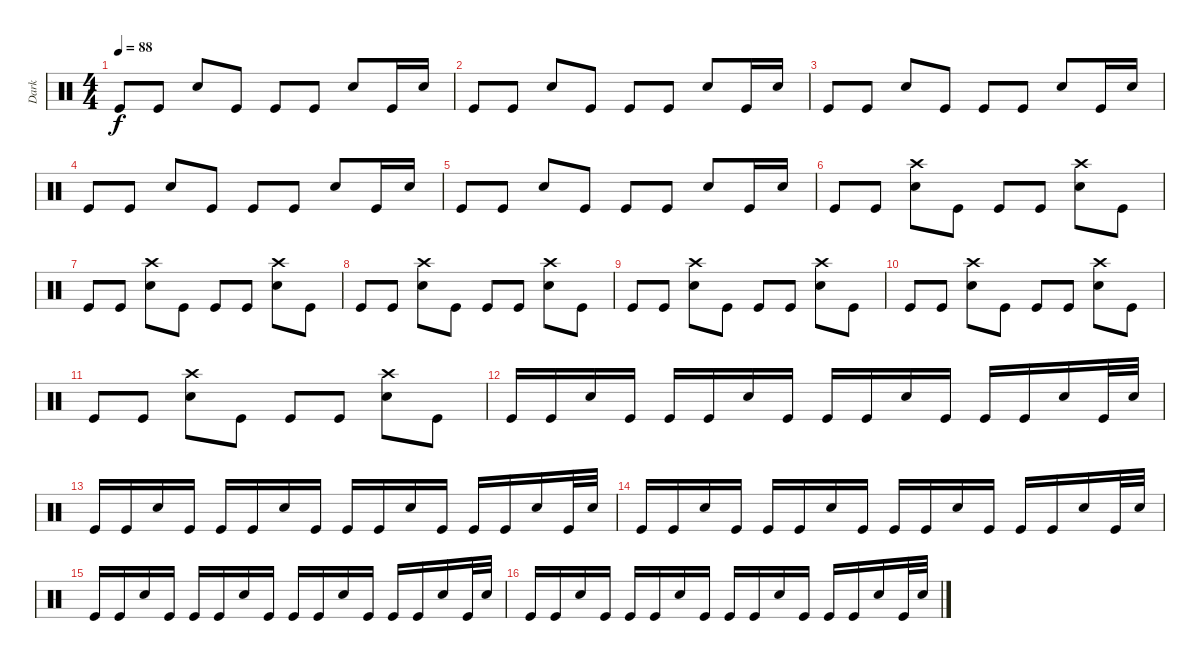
\track ("Dark " "Dark ") {instrument percussion}
\staff {score}
\articulation defaults
\ts (4 4)
\tempo 88
\clef neutral
\ks c "Kick (hit)".8{dy f} "Kick (hit)".8 "Snare (hit) 2".8 "Kick (hit)".8 "Kick (hit)".8 "Kick (hit)".8 "Snare (hit) 2".8 "Kick (hit)".16 "Snare (hit) 2".16
|
"Kick (hit)".8 "Kick (hit)".8 "Snare (hit) 2".8 "Kick (hit)".8 "Kick (hit)".8 "Kick (hit)".8 "Snare (hit) 2".8 "Kick (hit)".16 "Snare (hit) 2".16 |
"Kick (hit)".8 "Kick (hit)".8 "Snare (hit) 2".8 "Kick (hit)".8 "Kick (hit)".8 "Kick (hit)".8 "Snare (hit) 2".8 "Kick (hit)".16 "Snare (hit) 2".16 |
"Kick (hit)".8 "Kick (hit)".8 "Snare (hit) 2".8 "Kick (hit)".8 "Kick (hit)".8 "Kick (hit)".8 "Snare (hit) 2".8 "Kick (hit)".16 "Snare (hit) 2".16 |
"Kick (hit)".8 "Kick (hit)".8 "Snare (hit) 2".8 "Kick (hit)".8 "Kick (hit)".8 "Kick (hit)".8 "Snare (hit) 2".8 "Kick (hit)".16 "Snare (hit) 2".16 |
"Kick (hit)".8 "Kick (hit)".8 ("Crash high (hit)" "Snare (hit) 2").8 "Kick (hit)".8 "Kick (hit)".8 "Kick (hit)".8 ("Crash high (hit)" "Snare (hit) 2").8 "Kick (hit)".8 |
"Kick (hit)".8 "Kick (hit)".8 ("Crash high (hit)" "Snare (hit) 2").8 "Kick (hit)".8 "Kick (hit)".8 "Kick (hit)".8 ("Crash high (hit)" "Snare (hit) 2").8 "Kick (hit)".8 |
"Kick (hit)".8 "Kick (hit)".8 ("Crash high (hit)" "Snare (hit) 2").8 "Kick (hit)".8 "Kick (hit)".8 "Kick (hit)".8 ("Crash high (hit)" "Snare (hit) 2").8 "Kick (hit)".8 |
"Kick (hit)".8 "Kick (hit)".8 ("Crash high (hit)" "Snare (hit) 2").8 "Kick (hit)".8 "Kick (hit)".8 "Kick (hit)".8 ("Crash high (hit)" "Snare (hit) 2").8 "Kick (hit)".8 |
"Kick (hit)".8 "Kick (hit)".8 ("Crash high (hit)" "Snare (hit) 2").8 "Kick (hit)".8 "Kick (hit)".8 "Kick (hit)".8 ("Crash high (hit)" "Snare (hit) 2").8 "Kick (hit)".8 |
"Kick (hit)".8 "Kick (hit)".8 ("Crash high (hit)" "Snare (hit) 2").8 "Kick (hit)".8 "Kick (hit)".8 "Kick (hit)".8 ("Crash high (hit)" "Snare (hit) 2").8 "Kick (hit)".8 |
"Kick (hit)".16 "Kick (hit)".16 "Snare (hit) 2".16 "Kick (hit)".16 "Kick (hit)".16 "Kick (hit)".16 "Snare (hit) 2".16 "Kick (hit)".16 "Kick (hit)".16 "Kick (hit)".16 "Snare (hit) 2".16 "Kick (hit)".16 "Kick (hit)".16 "Kick (hit)".16 "Snare (hit) 2".16 "Kick (hit)".32 "Snare (hit) 2".32 |
"Kick (hit)".16 "Kick (hit)".16 "Snare (hit) 2".16 "Kick (hit)".16 "Kick (hit)".16 "Kick (hit)".16 "Snare (hit) 2".16 "Kick (hit)".16 "Kick (hit)".16 "Kick (hit)".16 "Snare (hit) 2".16 "Kick (hit)".16 "Kick (hit)".16 "Kick (hit)".16 "Snare (hit) 2".16 "Kick (hit)".32 "Snare (hit) 2".32 |
"Kick (hit)".16 "Kick (hit)".16 "Snare (hit) 2".16 "Kick (hit)".16 "Kick (hit)".16 "Kick (hit)".16 "Snare (hit) 2".16 "Kick (hit)".16 "Kick (hit)".16 "Kick (hit)".16 "Snare (hit) 2".16 "Kick (hit)".16 "Kick (hit)".16 "Kick (hit)".16 "Snare (hit) 2".16 "Kick (hit)".32 "Snare (hit) 2".32 |
"Kick (hit)".16 "Kick (hit)".16 "Snare (hit) 2".16 "Kick (hit)".16 "Kick (hit)".16 "Kick (hit)".16 "Snare (hit) 2".16 "Kick (hit)".16 "Kick (hit)".16 "Kick (hit)".16 "Snare (hit) 2".16 "Kick (hit)".16 "Kick (hit)".16 "Kick (hit)".16 "Snare (hit) 2".16 "Kick (hit)".32 "Snare (hit) 2".32 |
"Kick (hit)".16 "Kick (hit)".16 "Snare (hit) 2".16 "Kick (hit)".16 "Kick (hit)".16 "Kick (hit)".16 "Snare (hit) 2".16 "Kick (hit)".16 "Kick (hit)".16 "Kick (hit)".16 "Snare (hit) 2".16 "Kick (hit)".16 "Kick (hit)".16 "Kick (hit)".16 "Snare (hit) 2".16 "Kick (hit)".32 "Snare (hit) 2".32
